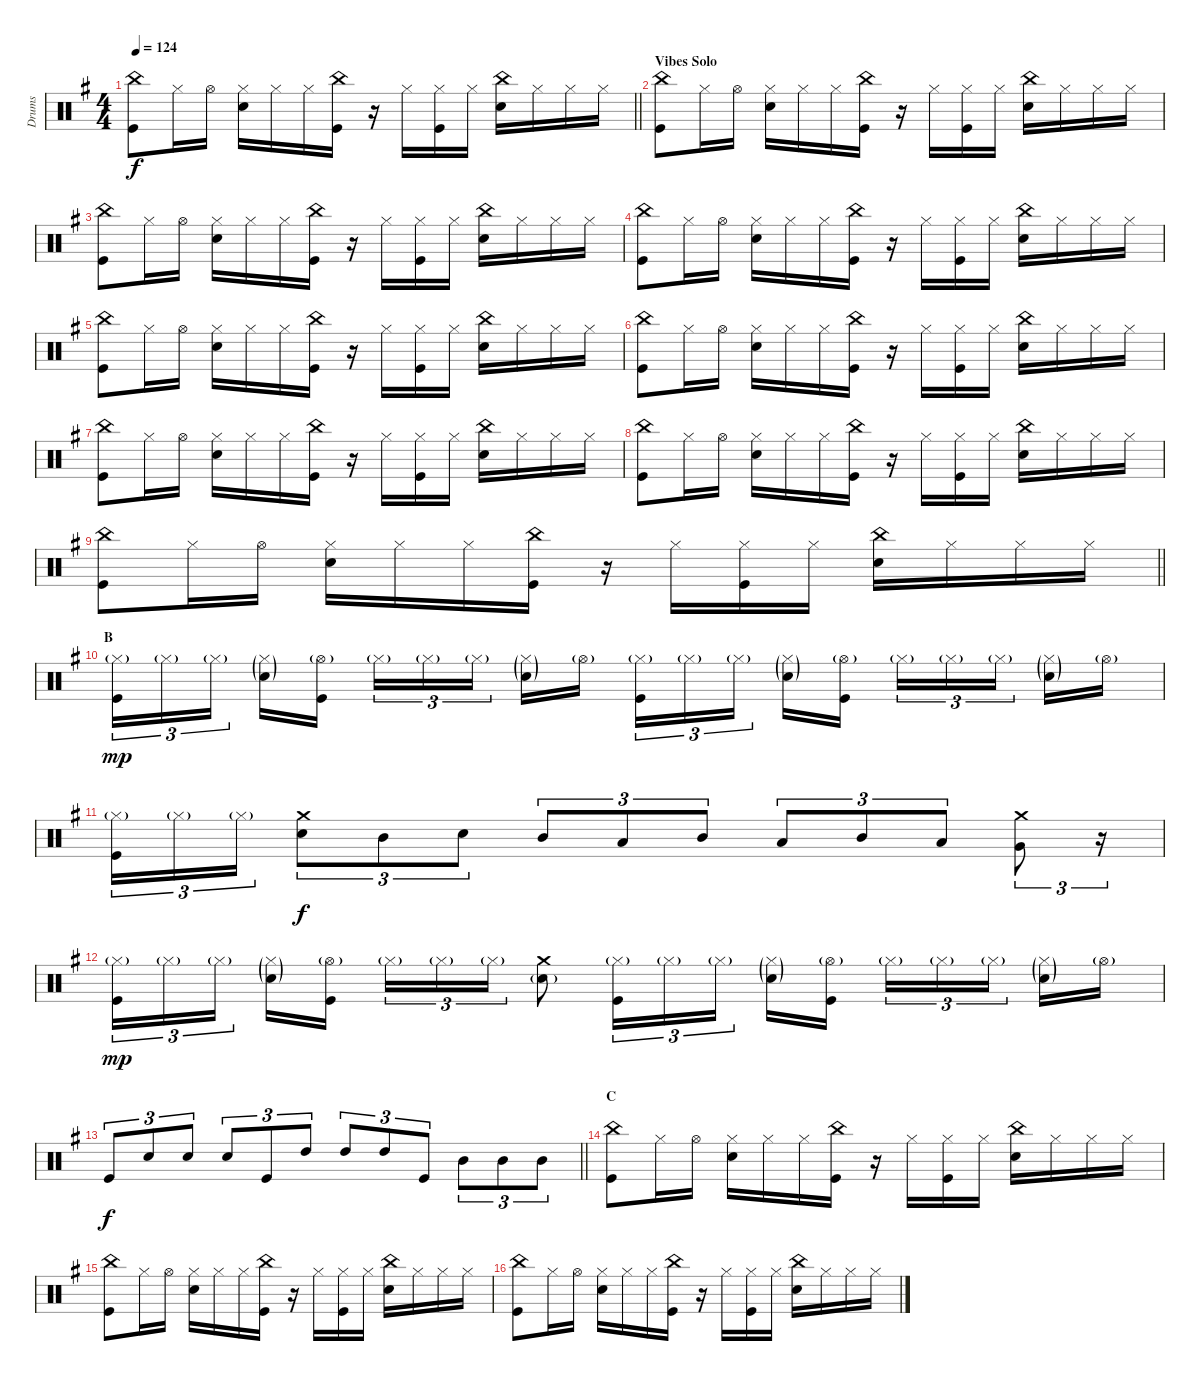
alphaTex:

\track ("Drums" "Drums") {instrument percussion}
\staff {score}
\articulation defaults
\ts (4 4)
\tempo 124
\clef neutral
\barLineRight lightlight
\ks eminor
("China (hit)" "Kick (hit)").8{dy f} "Hi-Hat (closed)".16 "Hi-Hat (open)".16 ("Hi-Hat (closed)" "Electric Snare (hit)").16 "Hi-Hat (closed)".16 "Hi-Hat (closed)".16 ("China (hit)" "Kick (hit)").16 r.16 "Hi-Hat (closed)".16 ("Hi-Hat (closed)" "Kick (hit)").16 "Hi-Hat (closed)".16 ("China (hit)" "Electric Snare (hit)").16 "Hi-Hat (closed)".16 "Hi-Hat (closed)".16 "Hi-Hat (closed)".16 |
\section ("" "Vibes Solo")
("China (hit)" "Kick (hit)").8 "Hi-Hat (closed)".16 "Hi-Hat (open)".16 ("Hi-Hat (closed)" "Electric Snare (hit)").16 "Hi-Hat (closed)".16 "Hi-Hat (closed)".16 ("China (hit)" "Kick (hit)").16 r.16 "Hi-Hat (closed)".16 ("Hi-Hat (closed)" "Kick (hit)").16 "Hi-Hat (closed)".16 ("China (hit)" "Electric Snare (hit)").16 "Hi-Hat (closed)".16 "Hi-Hat (closed)".16 "Hi-Hat (closed)".16 |
("China (hit)" "Kick (hit)").8 "Hi-Hat (closed)".16 "Hi-Hat (open)".16 ("Hi-Hat (closed)" "Electric Snare (hit)").16 "Hi-Hat (closed)".16 "Hi-Hat (closed)".16 ("China (hit)" "Kick (hit)").16 r.16 "Hi-Hat (closed)".16 ("Hi-Hat (closed)" "Kick (hit)").16 "Hi-Hat (closed)".16 ("China (hit)" "Electric Snare (hit)").16 "Hi-Hat (closed)".16 "Hi-Hat (closed)".16 "Hi-Hat (closed)".16 |
("China (hit)" "Kick (hit)").8 "Hi-Hat (closed)".16 "Hi-Hat (open)".16 ("Hi-Hat (closed)" "Electric Snare (hit)").16 "Hi-Hat (closed)".16 "Hi-Hat (closed)".16 ("China (hit)" "Kick (hit)").16 r.16 "Hi-Hat (closed)".16 ("Hi-Hat (closed)" "Kick (hit)").16 "Hi-Hat (closed)".16 ("China (hit)" "Electric Snare (hit)").16 "Hi-Hat (closed)".16 "Hi-Hat (closed)".16 "Hi-Hat (closed)".16 |
("China (hit)" "Kick (hit)").8 "Hi-Hat (closed)".16 "Hi-Hat (open)".16 ("Hi-Hat (closed)" "Electric Snare (hit)").16 "Hi-Hat (closed)".16 "Hi-Hat (closed)".16 ("China (hit)" "Kick (hit)").16 r.16 "Hi-Hat (closed)".16 ("Hi-Hat (closed)" "Kick (hit)").16 "Hi-Hat (closed)".16 ("China (hit)" "Electric Snare (hit)").16 "Hi-Hat (closed)".16 "Hi-Hat (closed)".16 "Hi-Hat (closed)".16 |
("China (hit)" "Kick (hit)").8 "Hi-Hat (closed)".16 "Hi-Hat (open)".16 ("Hi-Hat (closed)" "Electric Snare (hit)").16 "Hi-Hat (closed)".16 "Hi-Hat (closed)".16 ("China (hit)" "Kick (hit)").16 r.16 "Hi-Hat (closed)".16 ("Hi-Hat (closed)" "Kick (hit)").16 "Hi-Hat (closed)".16 ("China (hit)" "Electric Snare (hit)").16 "Hi-Hat (closed)".16 "Hi-Hat (closed)".16 "Hi-Hat (closed)".16 |
("China (hit)" "Kick (hit)").8 "Hi-Hat (closed)".16 "Hi-Hat (open)".16 ("Hi-Hat (closed)" "Electric Snare (hit)").16 "Hi-Hat (closed)".16 "Hi-Hat (closed)".16 ("China (hit)" "Kick (hit)").16 r.16 "Hi-Hat (closed)".16 ("Hi-Hat (closed)" "Kick (hit)").16 "Hi-Hat (closed)".16 ("China (hit)" "Electric Snare (hit)").16 "Hi-Hat (closed)".16 "Hi-Hat (closed)".16 "Hi-Hat (closed)".16 |
("China (hit)" "Kick (hit)").8 "Hi-Hat (closed)".16 "Hi-Hat (open)".16 ("Hi-Hat (closed)" "Electric Snare (hit)").16 "Hi-Hat (closed)".16 "Hi-Hat (closed)".16 ("China (hit)" "Kick (hit)").16 r.16 "Hi-Hat (closed)".16 ("Hi-Hat (closed)" "Kick (hit)").16 "Hi-Hat (closed)".16 ("China (hit)" "Electric Snare (hit)").16 "Hi-Hat (closed)".16 "Hi-Hat (closed)".16 "Hi-Hat (closed)".16 |
\barLineRight lightlight
("China (hit)" "Kick (hit)").8 "Hi-Hat (closed)".16 "Hi-Hat (open)".16 ("Hi-Hat (closed)" "Electric Snare (hit)").16 "Hi-Hat (closed)".16 "Hi-Hat (closed)".16 ("China (hit)" "Kick (hit)").16 r.16 "Hi-Hat (closed)".16 ("Hi-Hat (closed)" "Kick (hit)").16 "Hi-Hat (closed)".16 ("China (hit)" "Electric Snare (hit)").16 "Hi-Hat (closed)".16 "Hi-Hat (closed)".16 "Hi-Hat (closed)".16 |
\section ("" "B")
("Hi-Hat (closed)"{g} "Kick (hit)").16{tu (3 2) dy mp} "Hi-Hat (closed)"{g}.16{tu (3 2)} "Hi-Hat (closed)"{g}.16{tu (3 2)} ("Hi-Hat (closed)"{g} "Electric Snare (hit)"{g}).16 ("Hi-Hat (open)"{g} "Kick (hit)").16 "Hi-Hat (closed)"{g}.16{tu (3 2)} "Hi-Hat (closed)"{g}.16{tu (3 2)} "Hi-Hat (closed)"{g}.16{tu (3 2)} ("Hi-Hat (closed)"{g} "Electric Snare (hit)"{g}).16 "Hi-Hat (open)"{g}.16 ("Hi-Hat (closed)"{g} "Kick (hit)").16{tu (3 2)} "Hi-Hat (closed)"{g}.16{tu (3 2)} "Hi-Hat (closed)"{g}.16{tu (3 2)} ("Hi-Hat (closed)"{g} "Electric Snare (hit)"{g}).16 ("Hi-Hat (open)"{g} "Kick (hit)").16 "Hi-Hat (closed)"{g}.16{tu (3 2)} "Hi-Hat (closed)"{g}.16{tu (3 2)} "Hi-Hat (closed)"{g}.16{tu (3 2)} ("Hi-Hat (closed)"{g} "Electric Snare (hit)"{g}).16 "Hi-Hat (open)"{g}.16 |
("Hi-Hat (closed)"{g} "Kick (hit)").16{tu (3 2)} "Hi-Hat (closed)"{g}.16{tu (3 2)} "Hi-Hat (closed)"{g}.16{tu (3 2)} ("Crash medium (hit)" "Electric Snare (hit)").8{tu (3 2) dy f} "Mid Tom (hit)".8{tu (3 2)} "Electric Snare (hit)".8{tu (3 2)} "Mid Tom (hit)".8{tu (3 2)} "Low Tom (hit)".8{tu (3 2)} "Mid Tom (hit)".8{tu (3 2)} "Low Tom (hit)".8{tu (3 2)} "Mid Tom (hit)".8{tu (3 2)} "Low Tom (hit)".8{tu (3 2)} ("Crash medium (hit)" "Very Low Tom (hit)").8{tu (3 2)} r.16{tu (3 2)} |
("Hi-Hat (closed)"{g} "Kick (hit)").16{tu (3 2) dy mp} "Hi-Hat (closed)"{g}.16{tu (3 2)} "Hi-Hat (closed)"{g}.16{tu (3 2)} ("Hi-Hat (closed)"{g} "Electric Snare (hit)"{g}).16 ("Hi-Hat (open)"{g} "Kick (hit)").16 "Hi-Hat (closed)"{g}.16{tu (3 2)} "Hi-Hat (closed)"{g}.16{tu (3 2)} "Hi-Hat (closed)"{g}.16{tu (3 2)} ("Crash medium (hit)" "Electric Snare (hit)"{g}).8 ("Hi-Hat (closed)"{g} "Kick (hit)").16{tu (3 2)} "Hi-Hat (closed)"{g}.16{tu (3 2)} "Hi-Hat (closed)"{g}.16{tu (3 2)} ("Hi-Hat (closed)"{g} "Electric Snare (hit)"{g}).16 ("Hi-Hat (open)"{g} "Kick (hit)").16 "Hi-Hat (closed)"{g}.16{tu (3 2)} "Hi-Hat (closed)"{g}.16{tu (3 2)} "Hi-Hat (closed)"{g}.16{tu (3 2)} ("Hi-Hat (closed)"{g} "Electric Snare (hit)"{g}).16 "Hi-Hat (open)"{g}.16 |
\barLineRight lightlight "Kick (hit)".8{tu (3 2) dy f} "Electric Snare (hit)".8{tu (3 2)} "Electric Snare (hit)".8{tu (3 2)} "Electric Snare (hit)".8{tu (3 2)} "Kick (hit)".8{tu (3 2)} "High Tom (hit)".8{tu (3 2)} "High Tom (hit)".8{tu (3 2)} "High Tom (hit)".8{tu (3 2)} "Kick (hit)".8{tu (3 2)} "Mid Tom (hit)".8{tu (3 2)} "Mid Tom (hit)".8{tu (3 2)} "Mid Tom (hit)".8{tu (3 2)}
|
\section ("" "C")
("China (hit)" "Kick (hit)").8 "Hi-Hat (closed)".16 "Hi-Hat (open)".16 ("Hi-Hat (closed)" "Electric Snare (hit)").16 "Hi-Hat (closed)".16 "Hi-Hat (closed)".16 ("China (hit)" "Kick (hit)").16 r.16 "Hi-Hat (closed)".16 ("Hi-Hat (closed)" "Kick (hit)").16 "Hi-Hat (closed)".16 ("China (hit)" "Electric Snare (hit)").16 "Hi-Hat (closed)".16 "Hi-Hat (closed)".16 "Hi-Hat (closed)".16 |
("China (hit)" "Kick (hit)").8 "Hi-Hat (closed)".16 "Hi-Hat (open)".16 ("Hi-Hat (closed)" "Electric Snare (hit)").16 "Hi-Hat (closed)".16 "Hi-Hat (closed)".16 ("China (hit)" "Kick (hit)").16 r.16 "Hi-Hat (closed)".16 ("Hi-Hat (closed)" "Kick (hit)").16 "Hi-Hat (closed)".16 ("China (hit)" "Electric Snare (hit)").16 "Hi-Hat (closed)".16 "Hi-Hat (closed)".16 "Hi-Hat (closed)".16 |
("China (hit)" "Kick (hit)").8 "Hi-Hat (closed)".16 "Hi-Hat (open)".16 ("Hi-Hat (closed)" "Electric Snare (hit)").16 "Hi-Hat (closed)".16 "Hi-Hat (closed)".16 ("China (hit)" "Kick (hit)").16 r.16 "Hi-Hat (closed)".16 ("Hi-Hat (closed)" "Kick (hit)").16 "Hi-Hat (closed)".16 ("China (hit)" "Electric Snare (hit)").16 "Hi-Hat (closed)".16 "Hi-Hat (closed)".16 "Hi-Hat (closed)".16
